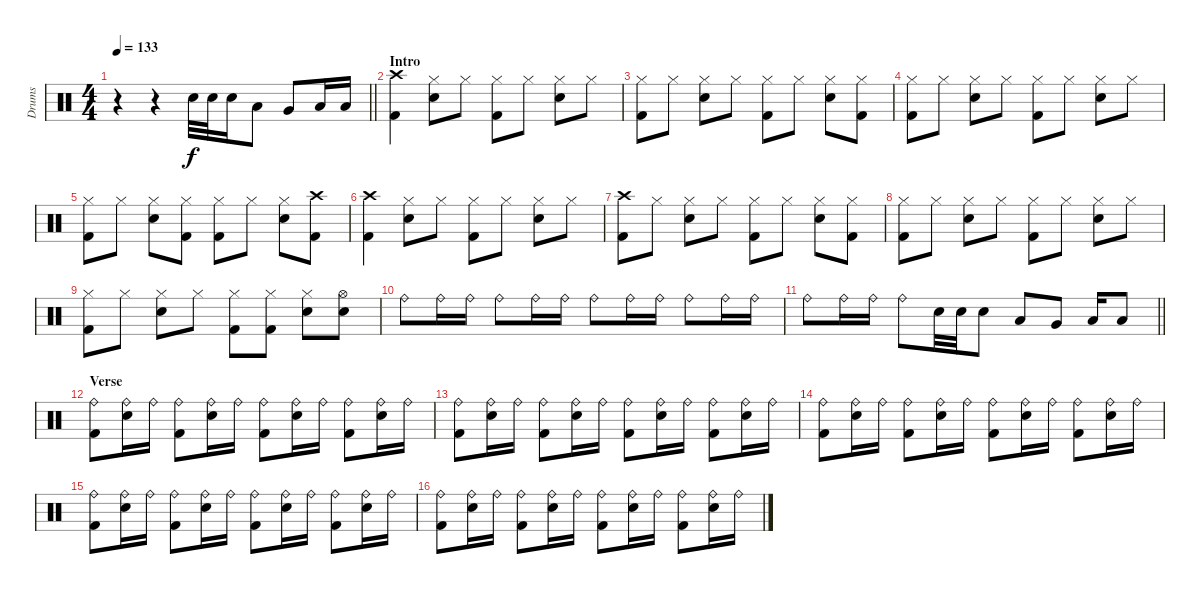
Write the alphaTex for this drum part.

\track ("Drums" "Drums") {instrument percussion}
\staff {score}
\articulation defaults
\ts (4 4)
\tempo 133
\clef neutral
\barLineRight lightlight
\ks c
r.4{dy f} r.4 "Electric Snare (hit)".32 "Electric Snare (hit)".32 "Electric Snare (hit)".16 "Low Tom (hit)".8 "Very Low Tom (hit)".8 "Low Floor Tom (hit)".16 "Low Floor Tom (hit)".16 |
\section ("" "Intro")
("Kick (hit) 2" "Crash high (hit)").4 ("Electric Snare (hit)" "Hi-Hat (closed)").8 "Hi-Hat (closed)".8 ("Kick (hit) 2" "Hi-Hat (closed)").8 "Hi-Hat (closed)".8 ("Electric Snare (hit)" "Hi-Hat (closed)").8 "Hi-Hat (closed)".8 |
("Kick (hit) 2" "Hi-Hat (closed)").8 "Hi-Hat (closed)".8 ("Electric Snare (hit)" "Hi-Hat (closed)").8 "Hi-Hat (closed)".8 ("Kick (hit) 2" "Hi-Hat (closed)").8 "Hi-Hat (closed)".8 ("Electric Snare (hit)" "Hi-Hat (closed)").8 ("Kick (hit) 2" "Hi-Hat (closed)").8 |
("Kick (hit) 2" "Hi-Hat (closed)").8 "Hi-Hat (closed)".8 ("Electric Snare (hit)" "Hi-Hat (closed)").8 "Hi-Hat (closed)".8 ("Kick (hit) 2" "Hi-Hat (closed)").8 "Hi-Hat (closed)".8 ("Electric Snare (hit)" "Hi-Hat (closed)").8 "Hi-Hat (closed)".8 |
("Kick (hit) 2" "Hi-Hat (closed)").8 "Hi-Hat (closed)".8 ("Electric Snare (hit)" "Hi-Hat (closed)").8 ("Kick (hit) 2" "Hi-Hat (closed)").8 ("Kick (hit) 2" "Hi-Hat (closed)").8 "Hi-Hat (closed)".8 ("Electric Snare (hit)" "Hi-Hat (closed)").8 ("Kick (hit) 2" "Crash high (hit)").8 |
("Kick (hit) 2" "Crash high (hit)").4 ("Electric Snare (hit)" "Hi-Hat (closed)").8 "Hi-Hat (closed)".8 ("Kick (hit) 2" "Hi-Hat (closed)").8 "Hi-Hat (closed)".8 ("Electric Snare (hit)" "Hi-Hat (closed)").8 "Hi-Hat (closed)".8 |
("Kick (hit) 2" "Crash high (hit)").8 "Hi-Hat (closed)".8 ("Electric Snare (hit)" "Hi-Hat (closed)").8 "Hi-Hat (closed)".8 ("Kick (hit) 2" "Hi-Hat (closed)").8 "Hi-Hat (closed)".8 ("Electric Snare (hit)" "Hi-Hat (closed)").8 ("Kick (hit) 2" "Hi-Hat (closed)").8 |
("Kick (hit) 2" "Hi-Hat (closed)").8 "Hi-Hat (closed)".8 ("Electric Snare (hit)" "Hi-Hat (closed)").8 "Hi-Hat (closed)".8 ("Kick (hit) 2" "Hi-Hat (closed)").8 "Hi-Hat (closed)".8 ("Electric Snare (hit)" "Hi-Hat (closed)").8 "Hi-Hat (closed)".8 |
("Kick (hit) 2" "Hi-Hat (closed)").8 "Hi-Hat (closed)".8 ("Electric Snare (hit)" "Hi-Hat (closed)").8 "Hi-Hat (closed)".8 ("Kick (hit) 2" "Hi-Hat (closed)").8 ("Kick (hit) 2" "Hi-Hat (closed)").8 ("Electric Snare (hit)" "Hi-Hat (closed)").8 ("Electric Snare (hit)" "Hi-Hat (open)").8 |
"Ride (bell)".8 "Ride (bell)".16 "Ride (bell)".16 "Ride (bell)".8 "Ride (bell)".16 "Ride (bell)".16 "Ride (bell)".8 "Ride (bell)".16 "Ride (bell)".16 "Ride (bell)".8 "Ride (bell)".16 "Ride (bell)".16 |
\barLineRight lightlight "Ride (bell)".8 "Ride (bell)".16 "Ride (bell)".16 "Ride (bell)".8 "Electric Snare (hit)".32 "Electric Snare (hit)".32 "Electric Snare (hit)".8 "Low Tom (hit)".8 "Very Low Tom (hit)".8 "Low Floor Tom (hit)".16 "Low Floor Tom (hit)".8
|
\section ("" "Verse")
("Ride (bell)" "Kick (hit) 2").8 ("Ride (bell)" "Electric Snare (hit)").16 "Ride (bell)".16 ("Ride (bell)" "Kick (hit) 2").8 ("Ride (bell)" "Electric Snare (hit)").16 "Ride (bell)".16 ("Ride (bell)" "Kick (hit) 2").8 ("Ride (bell)" "Electric Snare (hit)").16 "Ride (bell)".16 ("Ride (bell)" "Kick (hit) 2").8 ("Ride (bell)" "Electric Snare (hit)").16 "Ride (bell)".16 |
("Ride (bell)" "Kick (hit) 2").8 ("Ride (bell)" "Electric Snare (hit)").16 "Ride (bell)".16 ("Ride (bell)" "Kick (hit) 2").8 ("Ride (bell)" "Electric Snare (hit)").16 "Ride (bell)".16 ("Ride (bell)" "Kick (hit) 2").8 ("Ride (bell)" "Electric Snare (hit)").16 "Ride (bell)".16 ("Ride (bell)" "Kick (hit) 2").8 ("Ride (bell)" "Electric Snare (hit)").16 "Ride (bell)".16 |
("Ride (bell)" "Kick (hit) 2").8 ("Ride (bell)" "Electric Snare (hit)").16 "Ride (bell)".16 ("Ride (bell)" "Kick (hit) 2").8 ("Ride (bell)" "Electric Snare (hit)").16 "Ride (bell)".16 ("Ride (bell)" "Kick (hit) 2").8 ("Ride (bell)" "Electric Snare (hit)").16 "Ride (bell)".16 ("Ride (bell)" "Kick (hit) 2").8 ("Ride (bell)" "Electric Snare (hit)").16 "Ride (bell)".16 |
("Ride (bell)" "Kick (hit) 2").8 ("Ride (bell)" "Electric Snare (hit)").16 "Ride (bell)".16 ("Ride (bell)" "Kick (hit) 2").8 ("Ride (bell)" "Electric Snare (hit)").16 "Ride (bell)".16 ("Ride (bell)" "Kick (hit) 2").8 ("Ride (bell)" "Electric Snare (hit)").16 "Ride (bell)".16 ("Ride (bell)" "Kick (hit) 2").8 ("Ride (bell)" "Electric Snare (hit)").16 "Ride (bell)".16 |
("Ride (bell)" "Kick (hit) 2").8 ("Ride (bell)" "Electric Snare (hit)").16 "Ride (bell)".16 ("Ride (bell)" "Kick (hit) 2").8 ("Ride (bell)" "Electric Snare (hit)").16 "Ride (bell)".16 ("Ride (bell)" "Kick (hit) 2").8 ("Ride (bell)" "Electric Snare (hit)").16 "Ride (bell)".16 ("Ride (bell)" "Kick (hit) 2").8 ("Ride (bell)" "Electric Snare (hit)").16 "Ride (bell)".16
